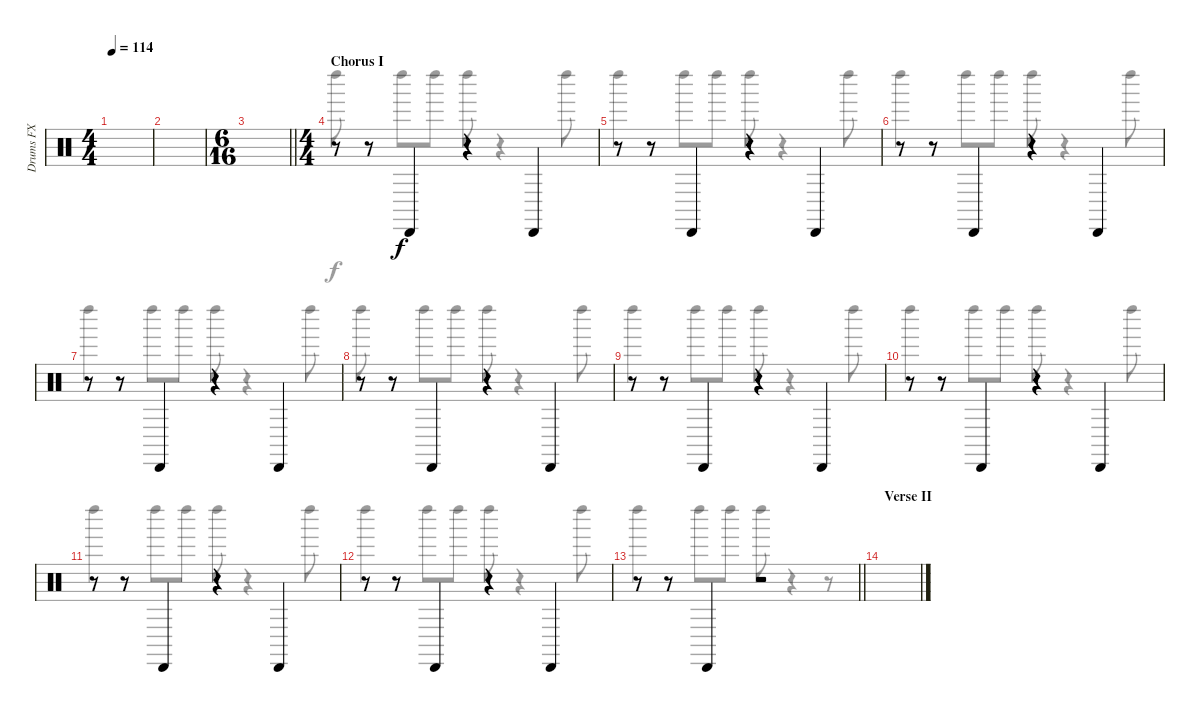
\track ("Drums FX" "Drums FX") {instrument percussion}
\staff {score}
\articulation defaults
\voice
\ts (4 4)
\tempo 114
\clef neutral
\ks c
|
|
\ts (6 16)
\barLineRight lightlight
|
\ts (4 4)
\section ("" "Chorus I")
r.8 r.8 "Cabasa (hit)".4 r.4 "Cabasa (hit)".4 |
r.8 r.8 "Cabasa (hit)".4 r.4 "Cabasa (hit)".4 |
r.8 r.8 "Cabasa (hit)".4 r.4 "Cabasa (hit)".4 |
r.8 r.8 "Cabasa (hit)".4 r.4 "Cabasa (hit)".4 |
r.8 r.8 "Cabasa (hit)".4 r.4 "Cabasa (hit)".4 |
r.8 r.8 "Cabasa (hit)".4 r.4 "Cabasa (hit)".4 |
r.8 r.8 "Cabasa (hit)".4 r.4 "Cabasa (hit)".4 |
r.8 r.8 "Cabasa (hit)".4 r.4 "Cabasa (hit)".4 |
r.8 r.8 "Cabasa (hit)".4 r.4 "Cabasa (hit)".4 |
\barLineRight lightlight
r.8 r.8 "Cabasa (hit)".4 r.2 |
\section ("" "Verse II")
|
|
\voice
\clef neutral
\ottava regular
\simile none
\ks c
|
|
\barLineRight lightlight
|
"Left Maraca (hit)".8 r.8 "Left Maraca (hit)".8 "Left Maraca (hit)".8 "Left Maraca (hit)".8 r.4 "Left Maraca (hit)".8 |
"Left Maraca (hit)".4 "Left Maraca (hit)".8 "Left Maraca (hit)".8 "Left Maraca (hit)".8 r.4 "Left Maraca (hit)".8 |
"Left Maraca (hit)".4 "Left Maraca (hit)".8 "Left Maraca (hit)".8 "Left Maraca (hit)".8 r.4 "Left Maraca (hit)".8 |
"Left Maraca (hit)".4 "Left Maraca (hit)".8 "Left Maraca (hit)".8 "Left Maraca (hit)".8 r.4 "Left Maraca (hit)".8 |
"Left Maraca (hit)".8 r.8 "Left Maraca (hit)".8 "Left Maraca (hit)".8 "Left Maraca (hit)".8 r.4 "Left Maraca (hit)".8 |
"Left Maraca (hit)".4 "Left Maraca (hit)".8 "Left Maraca (hit)".8 "Left Maraca (hit)".8 r.4 "Left Maraca (hit)".8 |
"Left Maraca (hit)".4 "Left Maraca (hit)".8 "Left Maraca (hit)".8 "Left Maraca (hit)".8 r.4 "Left Maraca (hit)".8 |
"Left Maraca (hit)".4 "Left Maraca (hit)".8 "Left Maraca (hit)".8 "Left Maraca (hit)".8 r.4 "Left Maraca (hit)".8 |
"Left Maraca (hit)".4 "Left Maraca (hit)".8 "Left Maraca (hit)".8 "Left Maraca (hit)".8 r.4 "Left Maraca (hit)".8 |
\barLineRight lightlight "Left Maraca (hit)".4 "Left Maraca (hit)".8 "Left Maraca (hit)".8 "Left Maraca (hit)".8
r.4 r.8 |
|
|
